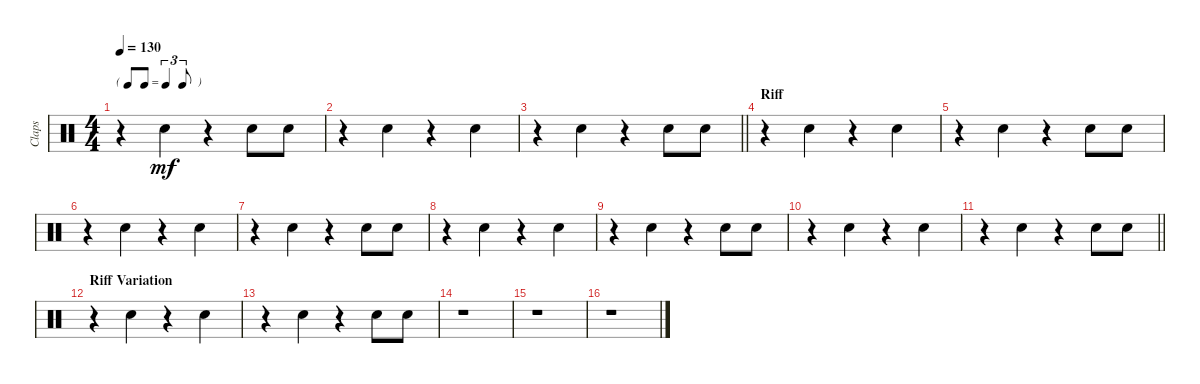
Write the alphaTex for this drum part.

\track ("Claps" "Claps") {instrument percussion}
\staff {score}
\articulation defaults
\ts (4 4)
\tf triplet8th
\tempo 130
\clef neutral
\ks c
r.4{dy mf} "Hand Clap (hit)".4 r.4 "Hand Clap (hit)".8 "Hand Clap (hit)".8 |
r.4 "Hand Clap (hit)".4 r.4 "Hand Clap (hit)".4 |
\barLineRight lightlight
r.4 "Hand Clap (hit)".4 r.4 "Hand Clap (hit)".8 "Hand Clap (hit)".8 |
\section ("" "Riff")
r.4 "Hand Clap (hit)".4 r.4 "Hand Clap (hit)".4 |
r.4 "Hand Clap (hit)".4 r.4 "Hand Clap (hit)".8 "Hand Clap (hit)".8 |
r.4 "Hand Clap (hit)".4 r.4 "Hand Clap (hit)".4 |
r.4 "Hand Clap (hit)".4 r.4 "Hand Clap (hit)".8 "Hand Clap (hit)".8 |
r.4 "Hand Clap (hit)".4 r.4 "Hand Clap (hit)".4 |
r.4 "Hand Clap (hit)".4 r.4 "Hand Clap (hit)".8 "Hand Clap (hit)".8 |
r.4 "Hand Clap (hit)".4 r.4 "Hand Clap (hit)".4 |
\barLineRight lightlight
r.4 "Hand Clap (hit)".4 r.4 "Hand Clap (hit)".8 "Hand Clap (hit)".8 |
\section ("" "Riff Variation")
r.4 "Hand Clap (hit)".4 r.4 "Hand Clap (hit)".4 |
r.4 "Hand Clap (hit)".4 r.4 "Hand Clap (hit)".8 "Hand Clap (hit)".8 |
r.1 |
r.1 |
r.1
